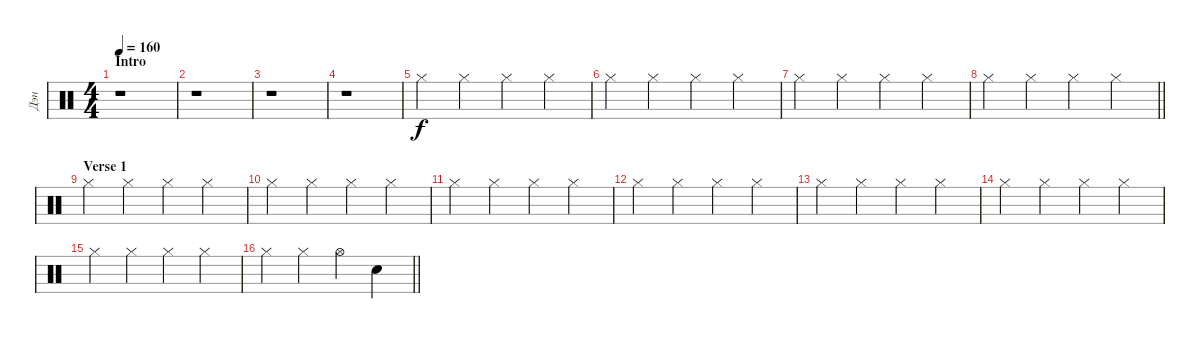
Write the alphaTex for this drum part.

\track ("Дэн" "Дэн") {instrument percussion}
\staff {score}
\articulation defaults
\ts (4 4)
\section ("" "Intro")
\tempo 160
\clef neutral
\ks c
r.1{dy f} |
r.1 |
r.1 |
r.1 |
"Hi-Hat (closed)".4 "Hi-Hat (closed)".4 "Hi-Hat (closed)".4 "Hi-Hat (closed)".4 |
"Hi-Hat (closed)".4 "Hi-Hat (closed)".4 "Hi-Hat (closed)".4 "Hi-Hat (closed)".4 |
"Hi-Hat (closed)".4 "Hi-Hat (closed)".4 "Hi-Hat (closed)".4 "Hi-Hat (closed)".4 |
\barLineRight lightlight "Hi-Hat (closed)".4 "Hi-Hat (closed)".4 "Hi-Hat (closed)".4 "Hi-Hat (closed)".4
|
\section ("" "Verse 1")
"Hi-Hat (closed)".4 "Hi-Hat (closed)".4 "Hi-Hat (closed)".4 "Hi-Hat (closed)".4 |
"Hi-Hat (closed)".4 "Hi-Hat (closed)".4 "Hi-Hat (closed)".4 "Hi-Hat (closed)".4 |
"Hi-Hat (closed)".4 "Hi-Hat (closed)".4 "Hi-Hat (closed)".4 "Hi-Hat (closed)".4 |
"Hi-Hat (closed)".4 "Hi-Hat (closed)".4 "Hi-Hat (closed)".4 "Hi-Hat (closed)".4 |
"Hi-Hat (closed)".4 "Hi-Hat (closed)".4 "Hi-Hat (closed)".4 "Hi-Hat (closed)".4 |
"Hi-Hat (closed)".4 "Hi-Hat (closed)".4 "Hi-Hat (closed)".4 "Hi-Hat (closed)".4 |
"Hi-Hat (closed)".4 "Hi-Hat (closed)".4 "Hi-Hat (closed)".4 "Hi-Hat (closed)".4 |
\barLineRight lightlight "Hi-Hat (closed)".4 "Hi-Hat (closed)".4 "Hi-Hat (open)".4 "Electric Snare (hit)".4
